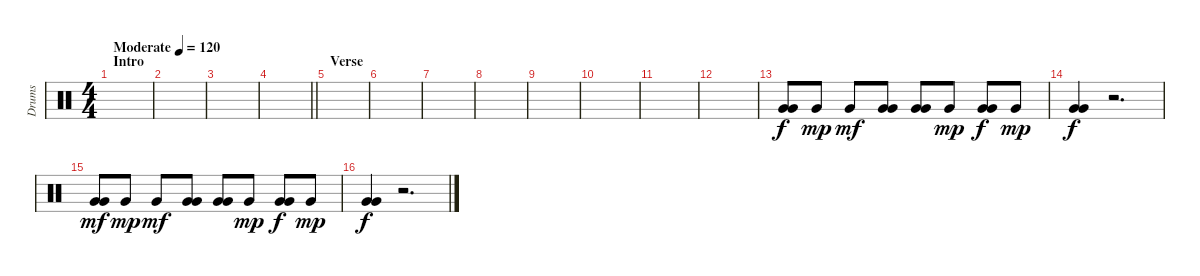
\track ("Drums" "Drums") {instrument percussion}
\staff {score}
\articulation defaults
\ts (4 4)
\section ("" "Intro")
\tempo (120 "Moderate")
\clef neutral
\ks c
|
|
|
\barLineRight lightlight
|
\section ("" "Verse")
|
|
|
|
|
|
|
|
("Very Low Tom (hit)" "Very Low Tom (hit)").8 "Very Low Tom (hit)".8{dy mp} "Very Low Tom (hit)".8{dy mf} ("Very Low Tom (hit)" "Very Low Tom (hit)").8 ("Very Low Tom (hit)" "Very Low Tom (hit)").8 "Very Low Tom (hit)".8{dy mp} ("Very Low Tom (hit)" "Very Low Tom (hit)").8{dy f} "Very Low Tom (hit)".8{dy mp} |
("Very Low Tom (hit)" "Very Low Tom (hit)").4{dy f} r.2{d} |
("Very Low Tom (hit)" "Very Low Tom (hit)").8{dy mf} "Very Low Tom (hit)".8{dy mp} "Very Low Tom (hit)".8{dy mf} ("Very Low Tom (hit)" "Very Low Tom (hit)").8 ("Very Low Tom (hit)" "Very Low Tom (hit)").8 "Very Low Tom (hit)".8{dy mp} ("Very Low Tom (hit)" "Very Low Tom (hit)").8{dy f} "Very Low Tom (hit)".8{dy mp} |
("Very Low Tom (hit)" "Very Low Tom (hit)").4{dy f} r.2{d}
